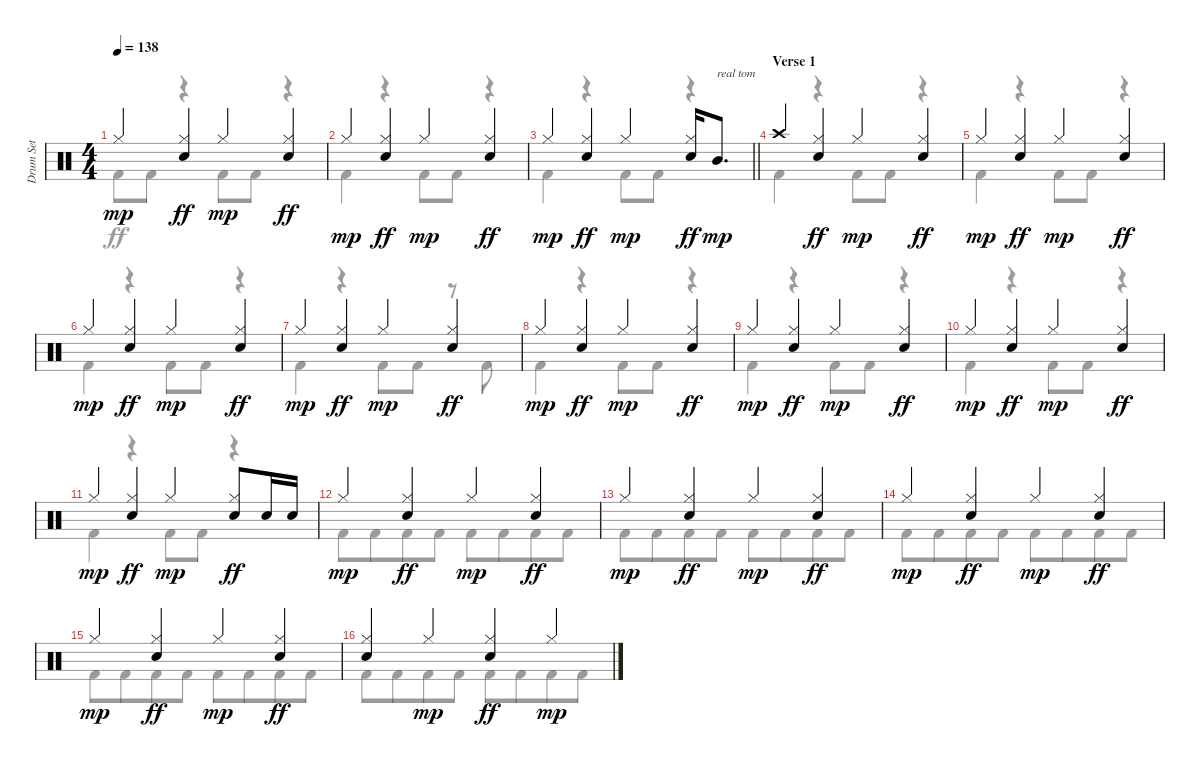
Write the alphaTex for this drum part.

\track ("Drum Set" "Drum Set") {instrument percussion}
\staff {score}
\articulation defaults
\voice
\ts (4 4)
\tempo 138
\clef neutral
\ks c "Hi-Hat (closed)".4{dy mp}
("Hi-Hat (closed)" "Electric Snare (hit)").4{dy ff} "Hi-Hat (closed)".4{dy mp} ("Hi-Hat (closed)" "Electric Snare (hit)").4{dy ff} |
"Hi-Hat (closed)".4{dy mp} ("Hi-Hat (closed)" "Electric Snare (hit)").4{dy ff} "Hi-Hat (closed)".4{dy mp} ("Hi-Hat (closed)" "Electric Snare (hit)").4{dy ff} |
\barLineRight lightlight "Hi-Hat (closed)".4{dy mp}
("Hi-Hat (closed)" "Electric Snare (hit)").4{dy ff} "Hi-Hat (closed)".4{dy mp} ("Hi-Hat (closed)" "Electric Snare (hit)").16{dy ff} "Mid Tom (hit)".8{d txt "real tom" dy mp} |
\section ("" "Verse 1")
"Crash high (hit)".4 ("Hi-Hat (closed)" "Electric Snare (hit)").4{dy ff} "Hi-Hat (closed)".4{dy mp} ("Hi-Hat (closed)" "Electric Snare (hit)").4{dy ff} |
"Hi-Hat (closed)".4{dy mp} ("Hi-Hat (closed)" "Electric Snare (hit)").4{dy ff} "Hi-Hat (closed)".4{dy mp} ("Hi-Hat (closed)" "Electric Snare (hit)").4{dy ff} |
"Hi-Hat (closed)".4{dy mp} ("Hi-Hat (closed)" "Electric Snare (hit)").4{dy ff} "Hi-Hat (closed)".4{dy mp} ("Hi-Hat (closed)" "Electric Snare (hit)").4{dy ff} |
"Hi-Hat (closed)".4{dy mp} ("Hi-Hat (closed)" "Electric Snare (hit)").4{dy ff} "Hi-Hat (closed)".4{dy mp} ("Hi-Hat (closed)" "Electric Snare (hit)").4{dy ff} |
"Hi-Hat (closed)".4{dy mp} ("Hi-Hat (closed)" "Electric Snare (hit)").4{dy ff} "Hi-Hat (closed)".4{dy mp} ("Hi-Hat (closed)" "Electric Snare (hit)").4{dy ff} |
"Hi-Hat (closed)".4{dy mp} ("Hi-Hat (closed)" "Electric Snare (hit)").4{dy ff} "Hi-Hat (closed)".4{dy mp} ("Hi-Hat (closed)" "Electric Snare (hit)").4{dy ff} |
"Hi-Hat (closed)".4{dy mp} ("Hi-Hat (closed)" "Electric Snare (hit)").4{dy ff} "Hi-Hat (closed)".4{dy mp} ("Hi-Hat (closed)" "Electric Snare (hit)").4{dy ff} |
"Hi-Hat (closed)".4{dy mp} ("Hi-Hat (closed)" "Electric Snare (hit)").4{dy ff} "Hi-Hat (closed)".4{dy mp} ("Hi-Hat (closed)" "Electric Snare (hit)").8{dy ff} "Electric Snare (hit)".16 "Electric Snare (hit)".16 |
"Hi-Hat (closed)".4{dy mp} ("Hi-Hat (closed)" "Electric Snare (hit)").4{dy ff} "Hi-Hat (closed)".4{dy mp} ("Hi-Hat (closed)" "Electric Snare (hit)").4{dy ff} |
"Hi-Hat (closed)".4{dy mp} ("Hi-Hat (closed)" "Electric Snare (hit)").4{dy ff} "Hi-Hat (closed)".4{dy mp} ("Hi-Hat (closed)" "Electric Snare (hit)").4{dy ff} |
"Hi-Hat (closed)".4{dy mp} ("Hi-Hat (closed)" "Electric Snare (hit)").4{dy ff} "Hi-Hat (closed)".4{dy mp} ("Hi-Hat (closed)" "Electric Snare (hit)").4{dy ff} |
"Hi-Hat (closed)".4{dy mp} ("Hi-Hat (closed)" "Electric Snare (hit)").4{dy ff} "Hi-Hat (closed)".4{dy mp} ("Hi-Hat (closed)" "Electric Snare (hit)").4{dy ff} |
("Hi-Hat (closed)" "Electric Snare (hit)").4 "Hi-Hat (closed)".4{dy mp} ("Hi-Hat (closed)" "Electric Snare (hit)").4{dy ff} "Hi-Hat (closed)".4{dy mp}
\voice
\clef neutral
\ottava regular
\simile none
\ks c "Kick (hit) 2".8{dy ff} "Kick (hit) 2".8
r.4 "Kick (hit) 2".8 "Kick (hit) 2".8 r.4 |
"Kick (hit) 2".4 r.4 "Kick (hit) 2".8 "Kick (hit) 2".8 r.4 |
\barLineRight lightlight "Kick (hit) 2".4
r.4 "Kick (hit) 2".8 "Kick (hit) 2".8 r.4 |
"Kick (hit) 2".4 r.4 "Kick (hit) 2".8 "Kick (hit) 2".8 r.4 |
"Kick (hit) 2".4 r.4 "Kick (hit) 2".8 "Kick (hit) 2".8 r.4 |
"Kick (hit) 2".4 r.4 "Kick (hit) 2".8 "Kick (hit) 2".8 r.4 |
"Kick (hit) 2".4 r.4 "Kick (hit) 2".8 "Kick (hit) 2".8 r.8 "Kick (hit) 2".8 |
"Kick (hit) 2".4 r.4 "Kick (hit) 2".8 "Kick (hit) 2".8 r.4 |
"Kick (hit) 2".4 r.4 "Kick (hit) 2".8 "Kick (hit) 2".8 r.4 |
"Kick (hit) 2".4 r.4 "Kick (hit) 2".8 "Kick (hit) 2".8 r.4 |
"Kick (hit) 2".4 r.4 "Kick (hit) 2".8 "Kick (hit) 2".8 r.4 |
"Kick (hit) 2".8 "Kick (hit) 2".8{beam merge} "Kick (hit) 2".8 "Kick (hit) 2".8 "Kick (hit) 2".8 "Kick (hit) 2".8{beam merge} "Kick (hit) 2".8 "Kick (hit) 2".8 |
"Kick (hit) 2".8 "Kick (hit) 2".8{beam merge} "Kick (hit) 2".8 "Kick (hit) 2".8 "Kick (hit) 2".8 "Kick (hit) 2".8{beam merge} "Kick (hit) 2".8 "Kick (hit) 2".8 |
"Kick (hit) 2".8 "Kick (hit) 2".8{beam merge} "Kick (hit) 2".8 "Kick (hit) 2".8 "Kick (hit) 2".8 "Kick (hit) 2".8{beam merge} "Kick (hit) 2".8 "Kick (hit) 2".8 |
"Kick (hit) 2".8 "Kick (hit) 2".8{beam merge} "Kick (hit) 2".8 "Kick (hit) 2".8 "Kick (hit) 2".8 "Kick (hit) 2".8{beam merge} "Kick (hit) 2".8 "Kick (hit) 2".8 |
"Kick (hit) 2".8 "Kick (hit) 2".8{beam merge} "Kick (hit) 2".8 "Kick (hit) 2".8 "Kick (hit) 2".8 "Kick (hit) 2".8{beam merge} "Kick (hit) 2".8 "Kick (hit) 2".8
